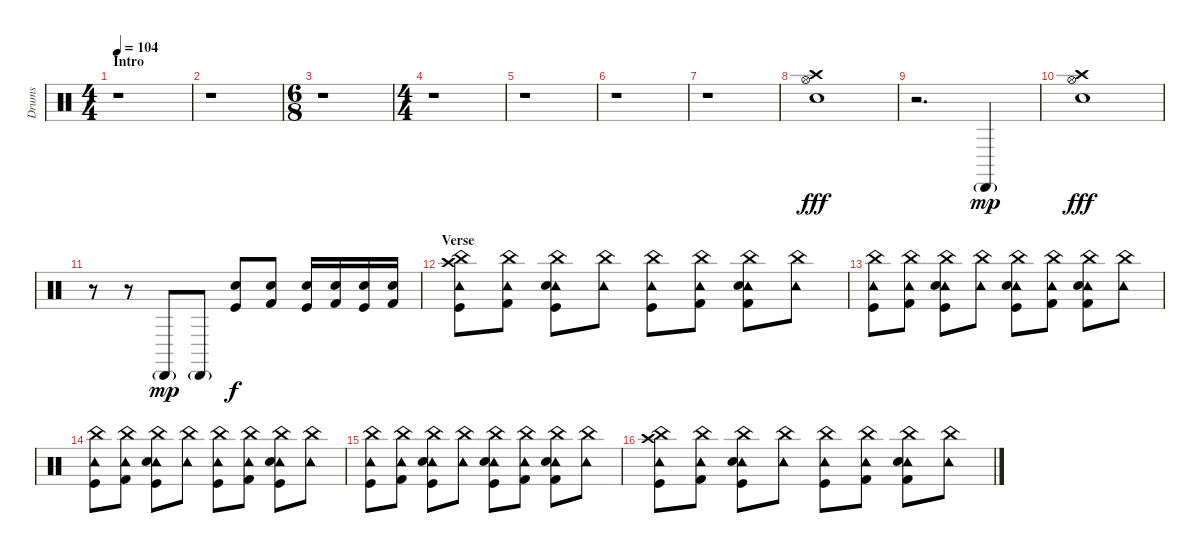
\track ("Drums" "Drums") {instrument percussion}
\staff {score}
\articulation defaults
\ts (4 4)
\section ("" "Intro")
\tempo 104
\clef neutral
\ks c
r.1{dy fff} |
r.1 |
\ts (6 8)
r.1 |
\ts (4 4)
r.1 |
r.1 |
r.1 |
r.1 |
("Crash high (hit)" "Hi-Hat (open)" "Snare (hit) 2").1 |
r.2{d} "Cabasa (hit)"{g}.4{dy mp} |
("Crash high (hit)" "Hi-Hat (open)" "Snare (hit) 2").1{dy fff} |
r.8 r.8 "Cabasa (hit)"{g}.8{dy mp} "Cabasa (hit)"{g}.8 ("Snare (hit) 2" "Kick (hit)").8{dy f} ("Electric Snare (hit)" "Kick (hit) 2").8 ("Snare (hit) 2" "Kick (hit)").16 ("Snare (hit) 2" "Kick (hit) 2").16 ("Snare (hit) 2" "Kick (hit)").16 ("Snare (hit) 2" "Kick (hit) 2").16 |
\section ("" "Verse")
("Tambourine (hit)" "China (hit)" "Kick (hit)" "Crash high (hit)").8{volume 12} ("Tambourine (hit)" "China (hit)" "Kick (hit) 2").8 ("Tambourine (hit)" "China (hit)" "Snare (hit) 2" "Kick (hit)").8 ("Tambourine (hit)" "China (hit)").8 ("Tambourine (hit)" "China (hit)" "Kick (hit)").8 ("Tambourine (hit)" "China (hit)" "Kick (hit) 2").8 ("Tambourine (hit)" "China (hit)" "Snare (hit) 2" "Kick (hit) 2").8 ("Tambourine (hit)" "China (hit)").8 |
("Tambourine (hit)" "China (hit)" "Kick (hit)").8{volume 12} ("Tambourine (hit)" "China (hit)" "Kick (hit) 2").8 ("Tambourine (hit)" "China (hit)" "Snare (hit) 2" "Kick (hit)").8 ("Tambourine (hit)" "China (hit)").8 ("Tambourine (hit)" "China (hit)" "Electric Snare (hit)" "Kick (hit)").8 ("Tambourine (hit)" "China (hit)" "Kick (hit) 2").8 ("Tambourine (hit)" "China (hit)" "Snare (hit) 2" "Kick (hit) 2").8 ("Tambourine (hit)" "China (hit)").8 |
("Tambourine (hit)" "China (hit)" "Kick (hit)").8{volume 12} ("Tambourine (hit)" "China (hit)" "Kick (hit) 2").8 ("Tambourine (hit)" "China (hit)" "Snare (hit) 2" "Kick (hit)").8 ("Tambourine (hit)" "China (hit)").8 ("Tambourine (hit)" "China (hit)" "Kick (hit)").8 ("Tambourine (hit)" "China (hit)" "Kick (hit) 2").8 ("Tambourine (hit)" "China (hit)" "Snare (hit) 2" "Kick (hit)").8 ("Tambourine (hit)" "China (hit)").8 |
("Tambourine (hit)" "China (hit)" "Kick (hit)").8{volume 12} ("Tambourine (hit)" "China (hit)" "Kick (hit) 2").8 ("Tambourine (hit)" "China (hit)" "Snare (hit) 2" "Kick (hit)").8 ("Tambourine (hit)" "China (hit)").8 ("Tambourine (hit)" "China (hit)" "Electric Snare (hit)" "Kick (hit)").8 ("Tambourine (hit)" "China (hit)" "Kick (hit) 2").8 ("Tambourine (hit)" "China (hit)" "Snare (hit) 2" "Kick (hit) 2").8 ("Tambourine (hit)" "China (hit)").8 |
("Tambourine (hit)" "China (hit)" "Kick (hit)" "Crash high (hit)").8{volume 12} ("Tambourine (hit)" "China (hit)" "Kick (hit) 2").8 ("Tambourine (hit)" "China (hit)" "Snare (hit) 2" "Kick (hit)").8 ("Tambourine (hit)" "China (hit)").8 ("Tambourine (hit)" "China (hit)" "Kick (hit)").8 ("Tambourine (hit)" "China (hit)" "Kick (hit) 2").8 ("Tambourine (hit)" "China (hit)" "Snare (hit) 2" "Kick (hit) 2").8 ("Tambourine (hit)" "China (hit)").8
